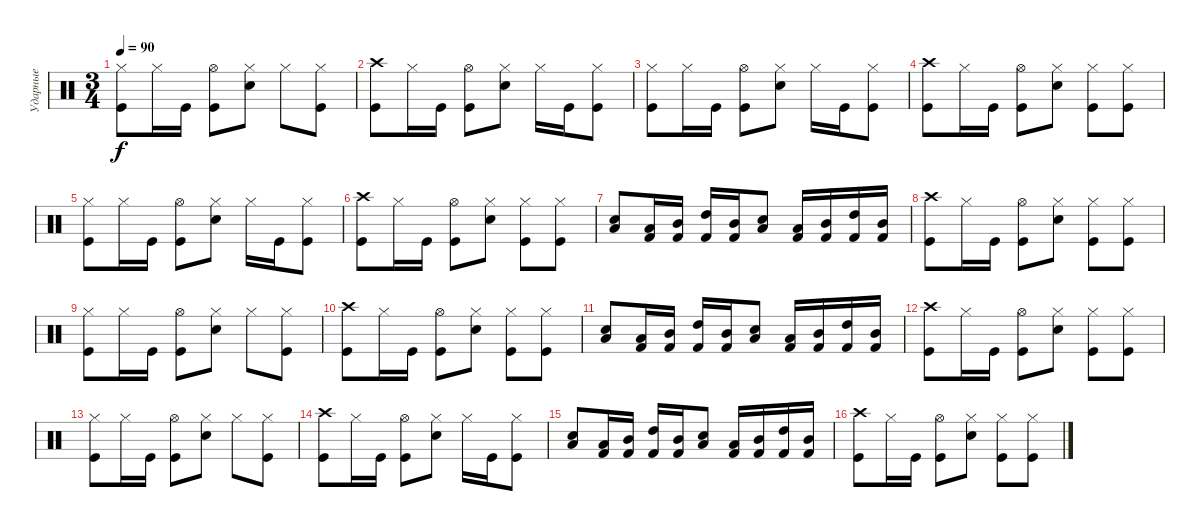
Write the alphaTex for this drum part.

\track ("Ударные" "Ударные") {instrument percussion}
\staff {score}
\articulation defaults
\ts (3 4)
\tempo 90
\clef neutral
\ks c
("Hi-Hat (closed)" "Kick (hit)").8{dy f} "Hi-Hat (closed)".16 "Kick (hit)".16 ("Hi-Hat (open)" "Kick (hit)").8 ("Hi-Hat (closed)" "Electric Snare (hit)").8 "Hi-Hat (closed)".8 ("Hi-Hat (closed)" "Kick (hit)").8 |
("Crash high (hit)" "Kick (hit)").8 "Hi-Hat (closed)".16 "Kick (hit)".16 ("Hi-Hat (open)" "Kick (hit)").8 ("Hi-Hat (closed)" "Electric Snare (hit)").8 "Hi-Hat (closed)".16 "Kick (hit)".16 ("Hi-Hat (closed)" "Kick (hit)").8 |
("Hi-Hat (closed)" "Kick (hit)").8 "Hi-Hat (closed)".16 "Kick (hit)".16 ("Hi-Hat (open)" "Kick (hit)").8 ("Hi-Hat (closed)" "Electric Snare (hit)").8 "Hi-Hat (closed)".16 "Kick (hit)".16 ("Hi-Hat (closed)" "Kick (hit)").8 |
("Crash high (hit)" "Kick (hit)").8 "Hi-Hat (closed)".16 "Kick (hit)".16 ("Hi-Hat (open)" "Kick (hit)").8 ("Hi-Hat (closed)" "Electric Snare (hit)").8 ("Hi-Hat (closed)" "Kick (hit)").8 ("Hi-Hat (closed)" "Kick (hit)").8 |
("Hi-Hat (closed)" "Kick (hit)").8 "Hi-Hat (closed)".16 "Kick (hit)".16 ("Hi-Hat (open)" "Kick (hit)").8 ("Hi-Hat (closed)" "Electric Snare (hit)").8 "Hi-Hat (closed)".16 "Kick (hit)".16 ("Hi-Hat (closed)" "Kick (hit)").8 |
("Crash high (hit)" "Kick (hit)").8 "Hi-Hat (closed)".16 "Kick (hit)".16 ("Hi-Hat (open)" "Kick (hit)").8 ("Hi-Hat (closed)" "Electric Snare (hit)").8 ("Hi-Hat (closed)" "Kick (hit)").8 ("Hi-Hat (closed)" "Kick (hit)").8 |
("Low Floor Tom (hit)" "Electric Snare (hit)").8 ("Low Tom (hit)" "Kick (hit) 2").16 ("Mid Tom (hit)" "Kick (hit) 2").16 ("High Tom (hit)" "Kick (hit) 2").16 ("Mid Tom (hit)" "Kick (hit) 2").16 ("Low Floor Tom (hit)" "Electric Snare (hit)").8 ("Low Tom (hit)" "Kick (hit) 2").16 ("Mid Tom (hit)" "Kick (hit) 2").16 ("High Tom (hit)" "Kick (hit) 2").16 ("Mid Tom (hit)" "Kick (hit) 2").16 |
("Crash high (hit)" "Kick (hit)").8 "Hi-Hat (closed)".16 "Kick (hit)".16 ("Hi-Hat (open)" "Kick (hit)").8 ("Hi-Hat (closed)" "Electric Snare (hit)").8 ("Hi-Hat (closed)" "Kick (hit)").8 ("Hi-Hat (closed)" "Kick (hit)").8 |
("Hi-Hat (closed)" "Kick (hit)").8 "Hi-Hat (closed)".16 "Kick (hit)".16 ("Hi-Hat (open)" "Kick (hit)").8 ("Hi-Hat (closed)" "Electric Snare (hit)").8 "Hi-Hat (closed)".8 ("Hi-Hat (closed)" "Kick (hit)").8 |
("Crash high (hit)" "Kick (hit)").8 "Hi-Hat (closed)".16 "Kick (hit)".16 ("Hi-Hat (open)" "Kick (hit)").8 ("Hi-Hat (closed)" "Electric Snare (hit)").8 ("Hi-Hat (closed)" "Kick (hit)").8 ("Hi-Hat (closed)" "Kick (hit)").8 |
("Low Floor Tom (hit)" "Electric Snare (hit)").8 ("Low Tom (hit)" "Kick (hit) 2").16 ("Mid Tom (hit)" "Kick (hit) 2").16 ("High Tom (hit)" "Kick (hit) 2").16 ("Mid Tom (hit)" "Kick (hit) 2").16 ("Low Floor Tom (hit)" "Electric Snare (hit)").8 ("Low Tom (hit)" "Kick (hit) 2").16 ("Mid Tom (hit)" "Kick (hit) 2").16 ("High Tom (hit)" "Kick (hit) 2").16 ("Mid Tom (hit)" "Kick (hit) 2").16 |
("Crash high (hit)" "Kick (hit)").8 "Hi-Hat (closed)".16 "Kick (hit)".16 ("Hi-Hat (open)" "Kick (hit)").8 ("Hi-Hat (closed)" "Electric Snare (hit)").8 ("Hi-Hat (closed)" "Kick (hit)").8 ("Hi-Hat (closed)" "Kick (hit)").8 |
("Hi-Hat (closed)" "Kick (hit)").8 "Hi-Hat (closed)".16 "Kick (hit)".16 ("Hi-Hat (open)" "Kick (hit)").8 ("Hi-Hat (closed)" "Electric Snare (hit)").8 "Hi-Hat (closed)".8 ("Hi-Hat (closed)" "Kick (hit)").8 |
("Crash high (hit)" "Kick (hit)").8 "Hi-Hat (closed)".16 "Kick (hit)".16 ("Hi-Hat (open)" "Kick (hit)").8 ("Hi-Hat (closed)" "Electric Snare (hit)").8 "Hi-Hat (closed)".16 "Kick (hit)".16 ("Hi-Hat (closed)" "Kick (hit)").8 |
("Low Floor Tom (hit)" "Electric Snare (hit)").8 ("Low Tom (hit)" "Kick (hit) 2").16 ("Mid Tom (hit)" "Kick (hit) 2").16 ("High Tom (hit)" "Kick (hit) 2").16 ("Mid Tom (hit)" "Kick (hit) 2").16 ("Low Floor Tom (hit)" "Electric Snare (hit)").8 ("Low Tom (hit)" "Kick (hit) 2").16 ("Mid Tom (hit)" "Kick (hit) 2").16 ("High Tom (hit)" "Kick (hit) 2").16 ("Mid Tom (hit)" "Kick (hit) 2").16 |
("Crash high (hit)" "Kick (hit)").8 "Hi-Hat (closed)".16 "Kick (hit)".16 ("Hi-Hat (open)" "Kick (hit)").8 ("Hi-Hat (closed)" "Electric Snare (hit)").8 ("Hi-Hat (closed)" "Kick (hit)").8 ("Hi-Hat (closed)" "Kick (hit)").8
